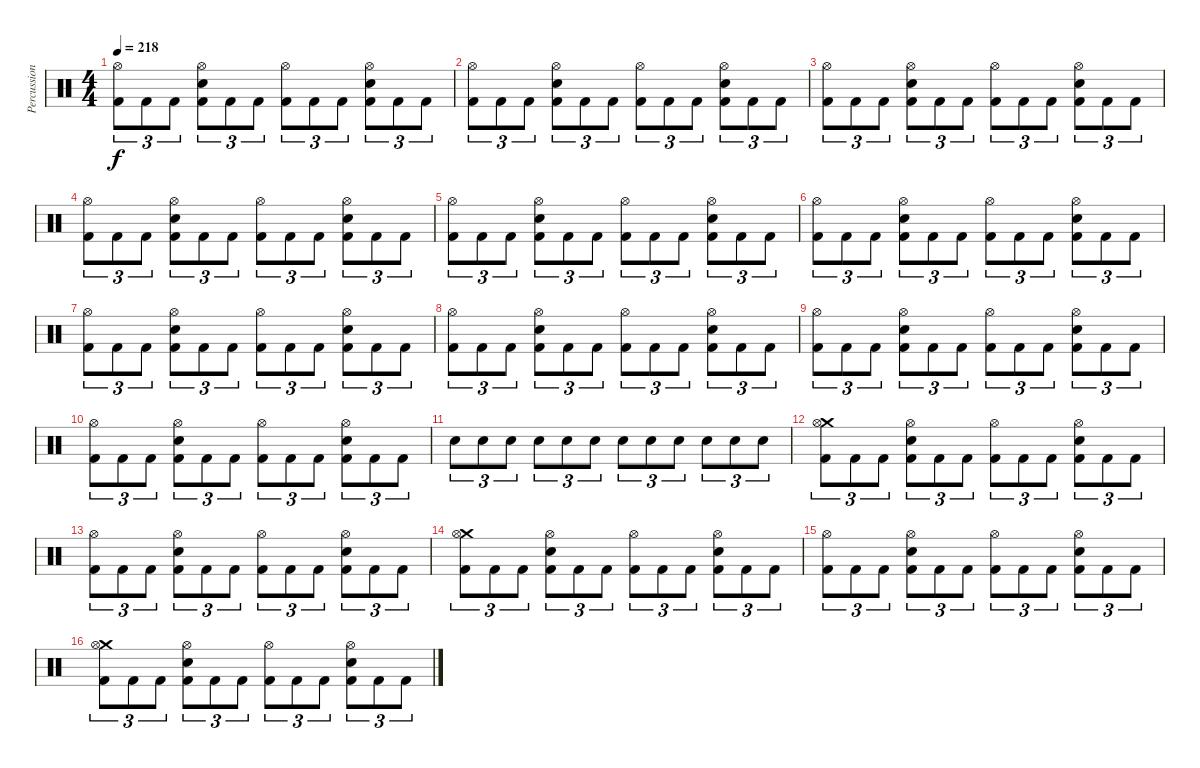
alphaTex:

\track ("Percussion" "Percussion") {instrument percussion}
\staff {score}
\articulation defaults
\ts (4 4)
\tempo 218
\clef neutral
\ks c
("Hi-Hat (open)" "Kick (hit) 2").8{tu (3 2) dy f} "Kick (hit) 2".8{tu (3 2)} "Kick (hit) 2".8{tu (3 2)} ("Hi-Hat (open)" "Electric Snare (hit)" "Kick (hit) 2").8{tu (3 2)} "Kick (hit) 2".8{tu (3 2)} "Kick (hit) 2".8{tu (3 2)} ("Hi-Hat (open)" "Kick (hit) 2").8{tu (3 2)} "Kick (hit) 2".8{tu (3 2)} "Kick (hit) 2".8{tu (3 2)} ("Hi-Hat (open)" "Electric Snare (hit)" "Kick (hit) 2").8{tu (3 2)} "Kick (hit) 2".8{tu (3 2)} "Kick (hit) 2".8{tu (3 2)} |
("Hi-Hat (open)" "Kick (hit) 2").8{tu (3 2)} "Kick (hit) 2".8{tu (3 2)} "Kick (hit) 2".8{tu (3 2)} ("Hi-Hat (open)" "Electric Snare (hit)" "Kick (hit) 2").8{tu (3 2)} "Kick (hit) 2".8{tu (3 2)} "Kick (hit) 2".8{tu (3 2)} ("Hi-Hat (open)" "Kick (hit) 2").8{tu (3 2)} "Kick (hit) 2".8{tu (3 2)} "Kick (hit) 2".8{tu (3 2)} ("Hi-Hat (open)" "Electric Snare (hit)" "Kick (hit) 2").8{tu (3 2)} "Kick (hit) 2".8{tu (3 2)} "Kick (hit) 2".8{tu (3 2)} |
("Hi-Hat (open)" "Kick (hit) 2").8{tu (3 2)} "Kick (hit) 2".8{tu (3 2)} "Kick (hit) 2".8{tu (3 2)} ("Hi-Hat (open)" "Electric Snare (hit)" "Kick (hit) 2").8{tu (3 2)} "Kick (hit) 2".8{tu (3 2)} "Kick (hit) 2".8{tu (3 2)} ("Hi-Hat (open)" "Kick (hit) 2").8{tu (3 2)} "Kick (hit) 2".8{tu (3 2)} "Kick (hit) 2".8{tu (3 2)} ("Hi-Hat (open)" "Electric Snare (hit)" "Kick (hit) 2").8{tu (3 2)} "Kick (hit) 2".8{tu (3 2)} "Kick (hit) 2".8{tu (3 2)} |
("Hi-Hat (open)" "Kick (hit) 2").8{tu (3 2)} "Kick (hit) 2".8{tu (3 2)} "Kick (hit) 2".8{tu (3 2)} ("Hi-Hat (open)" "Electric Snare (hit)" "Kick (hit) 2").8{tu (3 2)} "Kick (hit) 2".8{tu (3 2)} "Kick (hit) 2".8{tu (3 2)} ("Hi-Hat (open)" "Kick (hit) 2").8{tu (3 2)} "Kick (hit) 2".8{tu (3 2)} "Kick (hit) 2".8{tu (3 2)} ("Hi-Hat (open)" "Electric Snare (hit)" "Kick (hit) 2").8{tu (3 2)} "Kick (hit) 2".8{tu (3 2)} "Kick (hit) 2".8{tu (3 2)} |
("Hi-Hat (open)" "Kick (hit) 2").8{tu (3 2)} "Kick (hit) 2".8{tu (3 2)} "Kick (hit) 2".8{tu (3 2)} ("Hi-Hat (open)" "Electric Snare (hit)" "Kick (hit) 2").8{tu (3 2)} "Kick (hit) 2".8{tu (3 2)} "Kick (hit) 2".8{tu (3 2)} ("Hi-Hat (open)" "Kick (hit) 2").8{tu (3 2)} "Kick (hit) 2".8{tu (3 2)} "Kick (hit) 2".8{tu (3 2)} ("Hi-Hat (open)" "Electric Snare (hit)" "Kick (hit) 2").8{tu (3 2)} "Kick (hit) 2".8{tu (3 2)} "Kick (hit) 2".8{tu (3 2)} |
("Hi-Hat (open)" "Kick (hit) 2").8{tu (3 2)} "Kick (hit) 2".8{tu (3 2)} "Kick (hit) 2".8{tu (3 2)} ("Hi-Hat (open)" "Electric Snare (hit)" "Kick (hit) 2").8{tu (3 2)} "Kick (hit) 2".8{tu (3 2)} "Kick (hit) 2".8{tu (3 2)} ("Hi-Hat (open)" "Kick (hit) 2").8{tu (3 2)} "Kick (hit) 2".8{tu (3 2)} "Kick (hit) 2".8{tu (3 2)} ("Hi-Hat (open)" "Electric Snare (hit)" "Kick (hit) 2").8{tu (3 2)} "Kick (hit) 2".8{tu (3 2)} "Kick (hit) 2".8{tu (3 2)} |
("Hi-Hat (open)" "Kick (hit) 2").8{tu (3 2)} "Kick (hit) 2".8{tu (3 2)} "Kick (hit) 2".8{tu (3 2)} ("Hi-Hat (open)" "Electric Snare (hit)" "Kick (hit) 2").8{tu (3 2)} "Kick (hit) 2".8{tu (3 2)} "Kick (hit) 2".8{tu (3 2)} ("Hi-Hat (open)" "Kick (hit) 2").8{tu (3 2)} "Kick (hit) 2".8{tu (3 2)} "Kick (hit) 2".8{tu (3 2)} ("Hi-Hat (open)" "Electric Snare (hit)" "Kick (hit) 2").8{tu (3 2)} "Kick (hit) 2".8{tu (3 2)} "Kick (hit) 2".8{tu (3 2)} |
("Hi-Hat (open)" "Kick (hit) 2").8{tu (3 2)} "Kick (hit) 2".8{tu (3 2)} "Kick (hit) 2".8{tu (3 2)} ("Hi-Hat (open)" "Electric Snare (hit)" "Kick (hit) 2").8{tu (3 2)} "Kick (hit) 2".8{tu (3 2)} "Kick (hit) 2".8{tu (3 2)} ("Hi-Hat (open)" "Kick (hit) 2").8{tu (3 2)} "Kick (hit) 2".8{tu (3 2)} "Kick (hit) 2".8{tu (3 2)} ("Hi-Hat (open)" "Electric Snare (hit)" "Kick (hit) 2").8{tu (3 2)} "Kick (hit) 2".8{tu (3 2)} "Kick (hit) 2".8{tu (3 2)} |
("Hi-Hat (open)" "Kick (hit) 2").8{tu (3 2)} "Kick (hit) 2".8{tu (3 2)} "Kick (hit) 2".8{tu (3 2)} ("Hi-Hat (open)" "Electric Snare (hit)" "Kick (hit) 2").8{tu (3 2)} "Kick (hit) 2".8{tu (3 2)} "Kick (hit) 2".8{tu (3 2)} ("Hi-Hat (open)" "Kick (hit) 2").8{tu (3 2)} "Kick (hit) 2".8{tu (3 2)} "Kick (hit) 2".8{tu (3 2)} ("Hi-Hat (open)" "Electric Snare (hit)" "Kick (hit) 2").8{tu (3 2)} "Kick (hit) 2".8{tu (3 2)} "Kick (hit) 2".8{tu (3 2)} |
("Hi-Hat (open)" "Kick (hit) 2").8{tu (3 2)} "Kick (hit) 2".8{tu (3 2)} "Kick (hit) 2".8{tu (3 2)} ("Hi-Hat (open)" "Electric Snare (hit)" "Kick (hit) 2").8{tu (3 2)} "Kick (hit) 2".8{tu (3 2)} "Kick (hit) 2".8{tu (3 2)} ("Hi-Hat (open)" "Kick (hit) 2").8{tu (3 2)} "Kick (hit) 2".8{tu (3 2)} "Kick (hit) 2".8{tu (3 2)} ("Hi-Hat (open)" "Electric Snare (hit)" "Kick (hit) 2").8{tu (3 2)} "Kick (hit) 2".8{tu (3 2)} "Kick (hit) 2".8{tu (3 2)} |
"Electric Snare (hit)".8{tu (3 2)} "Electric Snare (hit)".8{tu (3 2)} "Electric Snare (hit)".8{tu (3 2)} "Electric Snare (hit)".8{tu (3 2)} "Electric Snare (hit)".8{tu (3 2)} "Electric Snare (hit)".8{tu (3 2)} "Electric Snare (hit)".8{tu (3 2)} "Electric Snare (hit)".8{tu (3 2)} "Electric Snare (hit)".8{tu (3 2)} "Electric Snare (hit)".8{tu (3 2)} "Electric Snare (hit)".8{tu (3 2)} "Electric Snare (hit)".8{tu (3 2)} |
("Crash medium (hit)" "Hi-Hat (open)" "Kick (hit) 2").8{tu (3 2)} "Kick (hit) 2".8{tu (3 2)} "Kick (hit) 2".8{tu (3 2)} ("Hi-Hat (open)" "Electric Snare (hit)" "Kick (hit) 2").8{tu (3 2)} "Kick (hit) 2".8{tu (3 2)} "Kick (hit) 2".8{tu (3 2)} ("Hi-Hat (open)" "Kick (hit) 2").8{tu (3 2)} "Kick (hit) 2".8{tu (3 2)} "Kick (hit) 2".8{tu (3 2)} ("Hi-Hat (open)" "Electric Snare (hit)" "Kick (hit) 2").8{tu (3 2)} "Kick (hit) 2".8{tu (3 2)} "Kick (hit) 2".8{tu (3 2)} |
("Hi-Hat (open)" "Kick (hit) 2").8{tu (3 2)} "Kick (hit) 2".8{tu (3 2)} "Kick (hit) 2".8{tu (3 2)} ("Hi-Hat (open)" "Electric Snare (hit)" "Kick (hit) 2").8{tu (3 2)} "Kick (hit) 2".8{tu (3 2)} "Kick (hit) 2".8{tu (3 2)} ("Hi-Hat (open)" "Kick (hit) 2").8{tu (3 2)} "Kick (hit) 2".8{tu (3 2)} "Kick (hit) 2".8{tu (3 2)} ("Hi-Hat (open)" "Electric Snare (hit)" "Kick (hit) 2").8{tu (3 2)} "Kick (hit) 2".8{tu (3 2)} "Kick (hit) 2".8{tu (3 2)} |
("Crash medium (hit)" "Hi-Hat (open)" "Kick (hit) 2").8{tu (3 2)} "Kick (hit) 2".8{tu (3 2)} "Kick (hit) 2".8{tu (3 2)} ("Hi-Hat (open)" "Electric Snare (hit)" "Kick (hit) 2").8{tu (3 2)} "Kick (hit) 2".8{tu (3 2)} "Kick (hit) 2".8{tu (3 2)} ("Hi-Hat (open)" "Kick (hit) 2").8{tu (3 2)} "Kick (hit) 2".8{tu (3 2)} "Kick (hit) 2".8{tu (3 2)} ("Hi-Hat (open)" "Electric Snare (hit)" "Kick (hit) 2").8{tu (3 2)} "Kick (hit) 2".8{tu (3 2)} "Kick (hit) 2".8{tu (3 2)} |
("Hi-Hat (open)" "Kick (hit) 2").8{tu (3 2)} "Kick (hit) 2".8{tu (3 2)} "Kick (hit) 2".8{tu (3 2)} ("Hi-Hat (open)" "Electric Snare (hit)" "Kick (hit) 2").8{tu (3 2)} "Kick (hit) 2".8{tu (3 2)} "Kick (hit) 2".8{tu (3 2)} ("Hi-Hat (open)" "Kick (hit) 2").8{tu (3 2)} "Kick (hit) 2".8{tu (3 2)} "Kick (hit) 2".8{tu (3 2)} ("Hi-Hat (open)" "Electric Snare (hit)" "Kick (hit) 2").8{tu (3 2)} "Kick (hit) 2".8{tu (3 2)} "Kick (hit) 2".8{tu (3 2)} |
("Crash medium (hit)" "Hi-Hat (open)" "Kick (hit) 2").8{tu (3 2)} "Kick (hit) 2".8{tu (3 2)} "Kick (hit) 2".8{tu (3 2)} ("Hi-Hat (open)" "Electric Snare (hit)" "Kick (hit) 2").8{tu (3 2)} "Kick (hit) 2".8{tu (3 2)} "Kick (hit) 2".8{tu (3 2)} ("Hi-Hat (open)" "Kick (hit) 2").8{tu (3 2)} "Kick (hit) 2".8{tu (3 2)} "Kick (hit) 2".8{tu (3 2)} ("Hi-Hat (open)" "Electric Snare (hit)" "Kick (hit) 2").8{tu (3 2)} "Kick (hit) 2".8{tu (3 2)} "Kick (hit) 2".8{tu (3 2)}
